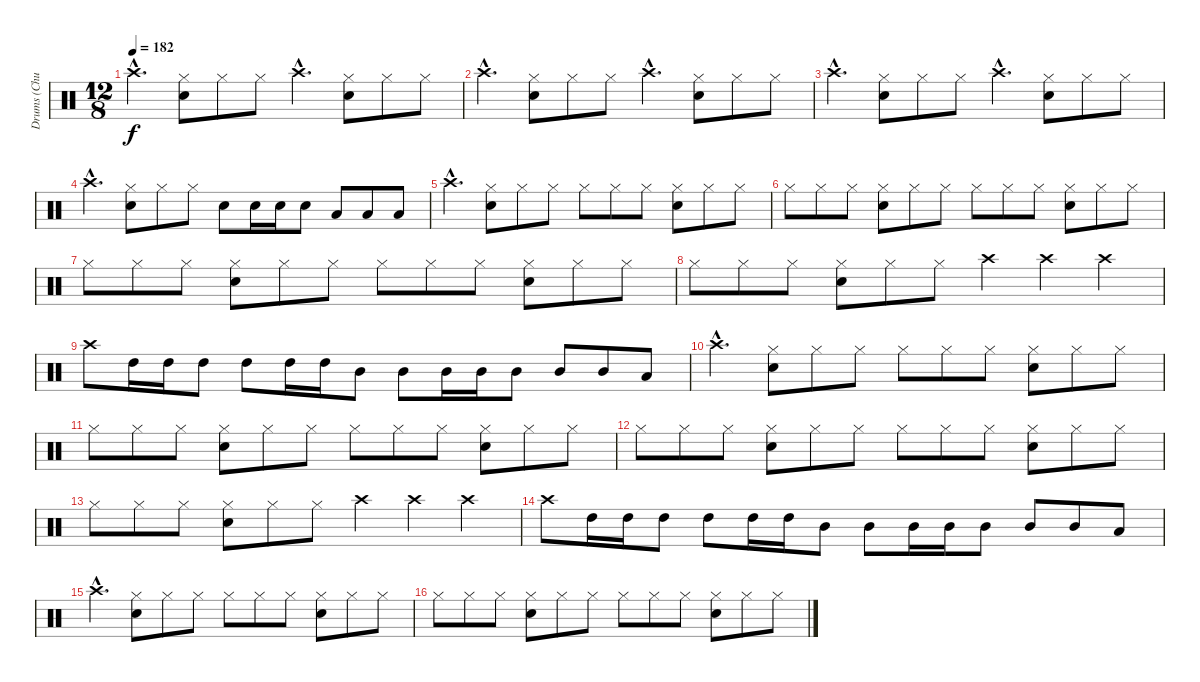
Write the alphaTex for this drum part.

\track ("Drums (Chuck Behler)" "Drums (Chu") {instrument percussion}
\staff {score}
\articulation defaults
\ts (12 8)
\tempo 182
\clef neutral
\ks c "Crash high (hit)"{hac}.4{d dy f}
("Hi-Hat (closed)" "Snare (hit) 2").8 "Hi-Hat (closed)".8 "Hi-Hat (closed)".8 "Crash high (hit)"{hac}.4{d} ("Hi-Hat (closed)" "Snare (hit) 2").8 "Hi-Hat (closed)".8 "Hi-Hat (closed)".8 |
"Crash high (hit)"{hac}.4{d} ("Hi-Hat (closed)" "Snare (hit) 2").8 "Hi-Hat (closed)".8 "Hi-Hat (closed)".8 "Crash high (hit)"{hac}.4{d} ("Hi-Hat (closed)" "Snare (hit) 2").8 "Hi-Hat (closed)".8 "Hi-Hat (closed)".8 |
"Crash high (hit)"{hac}.4{d} ("Hi-Hat (closed)" "Snare (hit) 2").8 "Hi-Hat (closed)".8 "Hi-Hat (closed)".8 "Crash high (hit)"{hac}.4{d} ("Hi-Hat (closed)" "Snare (hit) 2").8 "Hi-Hat (closed)".8 "Hi-Hat (closed)".8 |
"Crash high (hit)"{hac}.4{d} ("Hi-Hat (closed)" "Snare (hit) 2").8 "Hi-Hat (closed)".8 "Hi-Hat (closed)".8 "Snare (hit) 2".8 "Snare (hit) 2".16 "Snare (hit) 2".16 "Snare (hit) 2".8 "Low Tom (hit)".8 "Low Tom (hit)".8 "Low Tom (hit)".8 |
"Crash high (hit)"{hac}.4{d} ("Hi-Hat (closed)" "Snare (hit) 2").8 "Hi-Hat (closed)".8 "Hi-Hat (closed)".8 "Hi-Hat (closed)".8 "Hi-Hat (closed)".8 "Hi-Hat (closed)".8 ("Hi-Hat (closed)" "Snare (hit) 2").8 "Hi-Hat (closed)".8 "Hi-Hat (closed)".8 |
"Hi-Hat (closed)".8 "Hi-Hat (closed)".8 "Hi-Hat (closed)".8 ("Hi-Hat (closed)" "Snare (hit) 2").8 "Hi-Hat (closed)".8 "Hi-Hat (closed)".8 "Hi-Hat (closed)".8 "Hi-Hat (closed)".8 "Hi-Hat (closed)".8 ("Hi-Hat (closed)" "Snare (hit) 2").8 "Hi-Hat (closed)".8 "Hi-Hat (closed)".8 |
"Hi-Hat (closed)".8 "Hi-Hat (closed)".8 "Hi-Hat (closed)".8 ("Hi-Hat (closed)" "Snare (hit) 2").8 "Hi-Hat (closed)".8 "Hi-Hat (closed)".8 "Hi-Hat (closed)".8 "Hi-Hat (closed)".8 "Hi-Hat (closed)".8 ("Hi-Hat (closed)" "Snare (hit) 2").8 "Hi-Hat (closed)".8 "Hi-Hat (closed)".8 |
"Hi-Hat (closed)".8 "Hi-Hat (closed)".8 "Hi-Hat (closed)".8 ("Hi-Hat (closed)" "Snare (hit) 2").8 "Hi-Hat (closed)".8 "Hi-Hat (closed)".8 "Crash high (hit)".4 "Crash high (hit)".4 "Crash high (hit)".4 |
"Crash high (hit)".8 "High Tom (hit)".16 "High Tom (hit)".16 "High Tom (hit)".8 "High Tom (hit)".8 "High Tom (hit)".16 "High Tom (hit)".16 "Mid Tom (hit)".8 "Mid Tom (hit)".8 "Mid Tom (hit)".16 "Mid Tom (hit)".16 "Mid Tom (hit)".8 "Mid Tom (hit)".8 "Mid Tom (hit)".8 "Low Tom (hit)".8 |
"Crash high (hit)"{hac}.4{d} ("Hi-Hat (closed)" "Snare (hit) 2").8 "Hi-Hat (closed)".8 "Hi-Hat (closed)".8 "Hi-Hat (closed)".8 "Hi-Hat (closed)".8 "Hi-Hat (closed)".8 ("Hi-Hat (closed)" "Snare (hit) 2").8 "Hi-Hat (closed)".8 "Hi-Hat (closed)".8 |
"Hi-Hat (closed)".8 "Hi-Hat (closed)".8 "Hi-Hat (closed)".8 ("Hi-Hat (closed)" "Snare (hit) 2").8 "Hi-Hat (closed)".8 "Hi-Hat (closed)".8 "Hi-Hat (closed)".8 "Hi-Hat (closed)".8 "Hi-Hat (closed)".8 ("Hi-Hat (closed)" "Snare (hit) 2").8 "Hi-Hat (closed)".8 "Hi-Hat (closed)".8 |
"Hi-Hat (closed)".8 "Hi-Hat (closed)".8 "Hi-Hat (closed)".8 ("Hi-Hat (closed)" "Snare (hit) 2").8 "Hi-Hat (closed)".8 "Hi-Hat (closed)".8 "Hi-Hat (closed)".8 "Hi-Hat (closed)".8 "Hi-Hat (closed)".8 ("Hi-Hat (closed)" "Snare (hit) 2").8 "Hi-Hat (closed)".8 "Hi-Hat (closed)".8 |
"Hi-Hat (closed)".8 "Hi-Hat (closed)".8 "Hi-Hat (closed)".8 ("Hi-Hat (closed)" "Snare (hit) 2").8 "Hi-Hat (closed)".8 "Hi-Hat (closed)".8 "Crash high (hit)".4 "Crash high (hit)".4 "Crash high (hit)".4 |
"Crash high (hit)".8 "High Tom (hit)".16 "High Tom (hit)".16 "High Tom (hit)".8 "High Tom (hit)".8 "High Tom (hit)".16 "High Tom (hit)".16 "Mid Tom (hit)".8 "Mid Tom (hit)".8 "Mid Tom (hit)".16 "Mid Tom (hit)".16 "Mid Tom (hit)".8 "Mid Tom (hit)".8 "Mid Tom (hit)".8 "Low Tom (hit)".8 |
"Crash high (hit)"{hac}.4{d} ("Hi-Hat (closed)" "Snare (hit) 2").8 "Hi-Hat (closed)".8 "Hi-Hat (closed)".8 "Hi-Hat (closed)".8 "Hi-Hat (closed)".8 "Hi-Hat (closed)".8 ("Hi-Hat (closed)" "Snare (hit) 2").8 "Hi-Hat (closed)".8 "Hi-Hat (closed)".8 |
"Hi-Hat (closed)".8 "Hi-Hat (closed)".8 "Hi-Hat (closed)".8 ("Hi-Hat (closed)" "Snare (hit) 2").8 "Hi-Hat (closed)".8 "Hi-Hat (closed)".8 "Hi-Hat (closed)".8 "Hi-Hat (closed)".8 "Hi-Hat (closed)".8 ("Hi-Hat (closed)" "Snare (hit) 2").8 "Hi-Hat (closed)".8 "Hi-Hat (closed)".8
